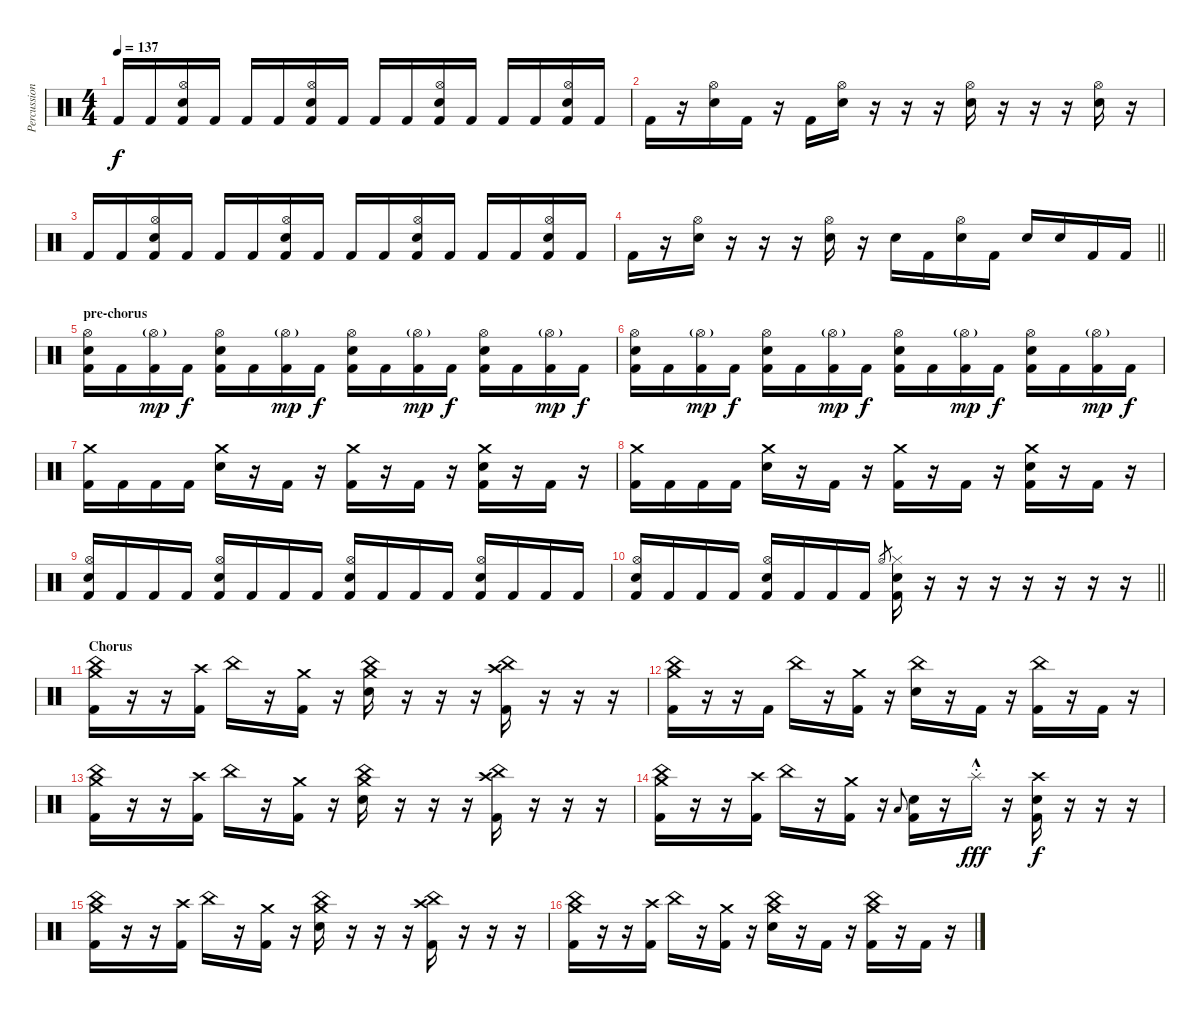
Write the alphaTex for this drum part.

\track ("Percussion" "Percussion") {instrument percussion}
\staff {score}
\articulation defaults
\ts (4 4)
\tempo 137
\clef neutral
\ks c "Kick (hit) 2".16{dy f} "Kick (hit) 2".16
("Hi-Hat (open)" "Electric Snare (hit)" "Kick (hit) 2").16 "Kick (hit) 2".16 "Kick (hit) 2".16 "Kick (hit) 2".16 ("Hi-Hat (open)" "Electric Snare (hit)" "Kick (hit) 2").16 "Kick (hit) 2".16 "Kick (hit) 2".16 "Kick (hit) 2".16 ("Hi-Hat (open)" "Electric Snare (hit)" "Kick (hit) 2").16 "Kick (hit) 2".16 "Kick (hit) 2".16 "Kick (hit) 2".16 ("Hi-Hat (open)" "Electric Snare (hit)" "Kick (hit) 2").16 "Kick (hit) 2".16 |
"Kick (hit) 2".16 r.16 ("Hi-Hat (open)" "Electric Snare (hit)").16 "Kick (hit) 2".16 r.16 "Kick (hit) 2".16 ("Hi-Hat (open)" "Electric Snare (hit)").16 r.16 r.16 r.16 ("Hi-Hat (open)" "Electric Snare (hit)").16 r.16 r.16 r.16 ("Hi-Hat (open)" "Electric Snare (hit)").16 r.16 |
"Kick (hit) 2".16 "Kick (hit) 2".16 ("Hi-Hat (open)" "Electric Snare (hit)" "Kick (hit) 2").16 "Kick (hit) 2".16 "Kick (hit) 2".16 "Kick (hit) 2".16 ("Hi-Hat (open)" "Electric Snare (hit)" "Kick (hit) 2").16 "Kick (hit) 2".16 "Kick (hit) 2".16 "Kick (hit) 2".16 ("Hi-Hat (open)" "Electric Snare (hit)" "Kick (hit) 2").16 "Kick (hit) 2".16 "Kick (hit) 2".16 "Kick (hit) 2".16 ("Hi-Hat (open)" "Electric Snare (hit)" "Kick (hit) 2").16 "Kick (hit) 2".16 |
\barLineRight lightlight "Kick (hit) 2".16
r.16 ("Hi-Hat (open)" "Electric Snare (hit)").16 r.16 r.16 r.16 ("Hi-Hat (open)" "Electric Snare (hit)").16 r.16 "Electric Snare (hit)".16 "Kick (hit) 2".16 ("Hi-Hat (open)" "Electric Snare (hit)").16 "Kick (hit) 2".16 "Electric Snare (hit)".16 "Electric Snare (hit)".16 "Kick (hit) 2".16 "Kick (hit) 2".16 |
\section ("" "pre-chorus")
("Hi-Hat (open)" "Electric Snare (hit)" "Kick (hit) 2").16 "Kick (hit) 2".16 ("Hi-Hat (open)"{g} "Kick (hit) 2").16{dy mp} "Kick (hit) 2".16{dy f} ("Hi-Hat (open)" "Electric Snare (hit)" "Kick (hit) 2").16 "Kick (hit) 2".16 ("Hi-Hat (open)"{g} "Kick (hit) 2").16{dy mp} "Kick (hit) 2".16{dy f} ("Hi-Hat (open)" "Electric Snare (hit)" "Kick (hit) 2").16 "Kick (hit) 2".16 ("Hi-Hat (open)"{g} "Kick (hit) 2").16{dy mp} "Kick (hit) 2".16{dy f} ("Hi-Hat (open)" "Electric Snare (hit)" "Kick (hit) 2").16 "Kick (hit) 2".16 ("Hi-Hat (open)"{g} "Kick (hit) 2").16{dy mp} "Kick (hit) 2".16{dy f} |
("Hi-Hat (open)" "Electric Snare (hit)" "Kick (hit) 2").16 "Kick (hit) 2".16 ("Hi-Hat (open)"{g} "Kick (hit) 2").16{dy mp} "Kick (hit) 2".16{dy f} ("Hi-Hat (open)" "Electric Snare (hit)" "Kick (hit) 2").16 "Kick (hit) 2".16 ("Hi-Hat (open)"{g} "Kick (hit) 2").16{dy mp} "Kick (hit) 2".16{dy f} ("Hi-Hat (open)" "Electric Snare (hit)" "Kick (hit) 2").16 "Kick (hit) 2".16 ("Hi-Hat (open)"{g} "Kick (hit) 2").16{dy mp} "Kick (hit) 2".16{dy f} ("Hi-Hat (open)" "Electric Snare (hit)" "Kick (hit) 2").16 "Kick (hit) 2".16 ("Hi-Hat (open)"{g} "Kick (hit) 2").16{dy mp} "Kick (hit) 2".16{dy f} |
("Crash medium (hit)" "Kick (hit) 2").16 "Kick (hit) 2".16 "Kick (hit) 2".16 "Kick (hit) 2".16 ("Crash medium (hit)" "Electric Snare (hit)").16 r.16 "Kick (hit) 2".16 r.16 ("Crash medium (hit)" "Kick (hit) 2").16 r.16 "Kick (hit) 2".16 r.16 ("Crash medium (hit)" "Electric Snare (hit)" "Kick (hit) 2").16 r.16 "Kick (hit) 2".16 r.16 |
("Crash medium (hit)" "Kick (hit) 2").16 "Kick (hit) 2".16 "Kick (hit) 2".16 "Kick (hit) 2".16 ("Crash medium (hit)" "Electric Snare (hit)").16 r.16 "Kick (hit) 2".16 r.16 ("Crash medium (hit)" "Kick (hit) 2").16 r.16 "Kick (hit) 2".16 r.16 ("Crash medium (hit)" "Electric Snare (hit)" "Kick (hit) 2").16 r.16 "Kick (hit) 2".16 r.16 |
("Hi-Hat (open)" "Electric Snare (hit)" "Kick (hit) 2").16 "Kick (hit) 2".16 "Kick (hit) 2".16 "Kick (hit) 2".16 ("Hi-Hat (open)" "Electric Snare (hit)" "Kick (hit) 2").16 "Kick (hit) 2".16 "Kick (hit) 2".16 "Kick (hit) 2".16 ("Hi-Hat (open)" "Electric Snare (hit)" "Kick (hit) 2").16 "Kick (hit) 2".16 "Kick (hit) 2".16 "Kick (hit) 2".16 ("Hi-Hat (open)" "Electric Snare (hit)" "Kick (hit) 2").16 "Kick (hit) 2".16 "Kick (hit) 2".16 "Kick (hit) 2".16 |
\barLineRight lightlight
("Hi-Hat (open)" "Electric Snare (hit)" "Kick (hit) 2").16 "Kick (hit) 2".16 "Kick (hit) 2".16 "Kick (hit) 2".16 ("Hi-Hat (open)" "Electric Snare (hit)" "Kick (hit) 2").16 "Kick (hit) 2".16 "Kick (hit) 2".16 "Kick (hit) 2".16 "Hi-Hat (open)".8{gr} ("Hi-Hat (closed)" "Electric Snare (hit)" "Kick (hit) 2").16 r.16 r.16 r.16 r.16 r.16 r.16 r.16 |
\section ("" "Chorus")
("China (hit)" "Crash medium (hit)" "Kick (hit) 2").16 r.16 r.16 ("Crash high (hit)" "Kick (hit) 2").16 "China (hit)".16 r.16 ("Crash medium (hit)" "Kick (hit) 2").16 r.16 ("China (hit)" "Crash medium (hit)" "Electric Snare (hit)").16 r.16 r.16 r.16 ("China (hit)" "Crash high (hit)" "Kick (hit) 2").16 r.16 r.16 r.16 |
("China (hit)" "Crash medium (hit)" "Kick (hit) 2").16 r.16 r.16 "Kick (hit) 2".16 "China (hit)".16 r.16 ("Crash medium (hit)" "Kick (hit) 2").16 r.16 ("China (hit)" "Electric Snare (hit)").16 r.16 "Kick (hit) 2".16 r.16 ("China (hit)" "Kick (hit) 2").16 r.16 "Kick (hit) 2".16 r.16 |
("China (hit)" "Crash medium (hit)" "Kick (hit) 2").16 r.16 r.16 ("Crash high (hit)" "Kick (hit) 2").16 "China (hit)".16 r.16 ("Crash medium (hit)" "Kick (hit) 2").16 r.16 ("China (hit)" "Crash medium (hit)" "Electric Snare (hit)").16 r.16 r.16 r.16 ("China (hit)" "Crash high (hit)" "Kick (hit) 2").16 r.16 r.16 r.16 |
("China (hit)" "Crash medium (hit)" "Kick (hit) 2").16 r.16 r.16 ("Crash high (hit)" "Kick (hit) 2").16 "China (hit)".16 r.16 ("Crash medium (hit)" "Kick (hit) 2").16 r.16 "Low Floor Tom (hit)".8{gr onbeat} ("Electric Snare (hit)" "Kick (hit) 2").16 r.16 "Splash (hit)"{hac st}.16{dy fff} r.16 ("Crash high (hit)" "Electric Snare (hit)" "Kick (hit) 2").16{dy f} r.16 r.16 r.16 |
("China (hit)" "Crash medium (hit)" "Kick (hit) 2").16 r.16 r.16 ("Crash high (hit)" "Kick (hit) 2").16 "China (hit)".16 r.16 ("Crash medium (hit)" "Kick (hit) 2").16 r.16 ("China (hit)" "Crash medium (hit)" "Electric Snare (hit)").16 r.16 r.16 r.16 ("China (hit)" "Crash high (hit)" "Kick (hit) 2").16 r.16 r.16 r.16 |
("China (hit)" "Crash medium (hit)" "Kick (hit) 2").16 r.16 r.16 ("Crash high (hit)" "Kick (hit) 2").16 "China (hit)".16 r.16 ("Crash medium (hit)" "Kick (hit) 2").16 r.16 ("China (hit)" "Crash medium (hit)" "Electric Snare (hit)").16 r.16 "Kick (hit) 2".16 r.16 ("China (hit)" "Crash medium (hit)" "Kick (hit) 2").16 r.16 "Kick (hit) 2".16 r.16
